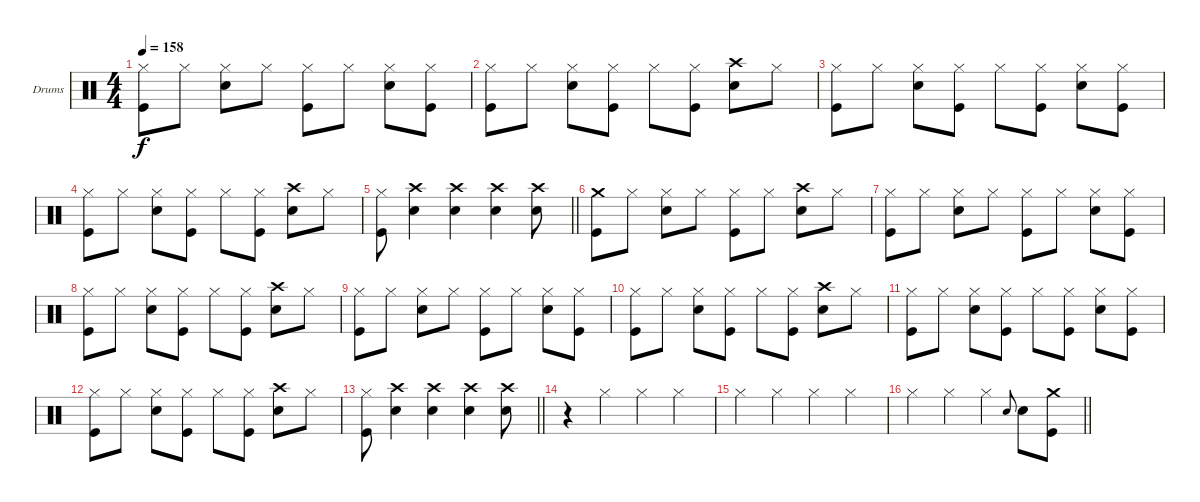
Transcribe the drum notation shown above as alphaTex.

\bracketExtendMode groupsimilarinstruments
\firstSystemTrackNameOrientation horizontal
\otherSystemsTrackNameOrientation horizontal
\track ("Drumkit" "Drums") {instrument percussion}
\staff {score}
\articulation defaults
\ts (4 4)
\tempo 158
\clef neutral
\ks c
("Hi-Hat (closed)" "Kick (hit)").8{dy f} "Hi-Hat (closed)".8 ("Hi-Hat (closed)" "Snare (hit) 2").8 "Hi-Hat (closed)".8 ("Hi-Hat (closed)" "Kick (hit)").8 "Hi-Hat (closed)".8 ("Hi-Hat (closed)" "Snare (hit) 2").8 ("Hi-Hat (closed)" "Kick (hit)").8 |
("Hi-Hat (closed)" "Kick (hit)").8 "Hi-Hat (closed)".8 ("Hi-Hat (closed)" "Snare (hit) 2").8 ("Hi-Hat (closed)" "Kick (hit)").8 "Hi-Hat (closed)".8 ("Hi-Hat (closed)" "Kick (hit)").8 ("Crash high (hit)" "Snare (hit) 2").8 "Hi-Hat (closed)".8 |
("Hi-Hat (closed)" "Kick (hit)").8 "Hi-Hat (closed)".8 ("Hi-Hat (closed)" "Snare (hit) 2").8 ("Hi-Hat (closed)" "Kick (hit)").8 "Hi-Hat (closed)".8 ("Hi-Hat (closed)" "Kick (hit)").8 ("Hi-Hat (closed)" "Snare (hit) 2").8 ("Hi-Hat (closed)" "Kick (hit)").8 |
("Hi-Hat (closed)" "Kick (hit)").8 "Hi-Hat (closed)".8 ("Hi-Hat (closed)" "Snare (hit) 2").8 ("Hi-Hat (closed)" "Kick (hit)").8 "Hi-Hat (closed)".8 ("Hi-Hat (closed)" "Kick (hit)").8 ("Crash high (hit)" "Snare (hit) 2").8 "Hi-Hat (closed)".8 |
\barLineRight lightlight
("Hi-Hat (closed)" "Kick (hit)").8 ("Crash high (hit)" "Snare (hit) 2").4 ("Crash high (hit)" "Snare (hit) 2").4 ("Crash high (hit)" "Snare (hit) 2").4 ("Crash high (hit)" "Snare (hit) 2").8 |
\section ("" "")
("Crash medium (hit)" "Kick (hit)").8 "Hi-Hat (closed)".8 ("Hi-Hat (closed)" "Snare (hit) 2").8 "Hi-Hat (closed)".8 ("Hi-Hat (closed)" "Kick (hit)").8 "Hi-Hat (closed)".8 ("Crash high (hit)" "Snare (hit) 2").8 "Hi-Hat (closed)".8 |
("Hi-Hat (closed)" "Kick (hit)").8 "Hi-Hat (closed)".8 ("Hi-Hat (closed)" "Snare (hit) 2").8 "Hi-Hat (closed)".8 ("Hi-Hat (closed)" "Kick (hit)").8 "Hi-Hat (closed)".8 ("Hi-Hat (closed)" "Snare (hit) 2").8 ("Hi-Hat (closed)" "Kick (hit)").8 |
("Hi-Hat (closed)" "Kick (hit)").8 "Hi-Hat (closed)".8 ("Hi-Hat (closed)" "Snare (hit) 2").8 ("Hi-Hat (closed)" "Kick (hit)").8 "Hi-Hat (closed)".8 ("Hi-Hat (closed)" "Kick (hit)").8 ("Crash high (hit)" "Snare (hit) 2").8 "Hi-Hat (closed)".8 |
("Hi-Hat (closed)" "Kick (hit)").8 "Hi-Hat (closed)".8 ("Hi-Hat (closed)" "Snare (hit) 2").8 "Hi-Hat (closed)".8 ("Hi-Hat (closed)" "Kick (hit)").8 "Hi-Hat (closed)".8 ("Hi-Hat (closed)" "Snare (hit) 2").8 ("Hi-Hat (closed)" "Kick (hit)").8 |
("Hi-Hat (closed)" "Kick (hit)").8 "Hi-Hat (closed)".8 ("Hi-Hat (closed)" "Snare (hit) 2").8 ("Hi-Hat (closed)" "Kick (hit)").8 "Hi-Hat (closed)".8 ("Hi-Hat (closed)" "Kick (hit)").8 ("Crash high (hit)" "Snare (hit) 2").8 "Hi-Hat (closed)".8 |
("Hi-Hat (closed)" "Kick (hit)").8 "Hi-Hat (closed)".8 ("Hi-Hat (closed)" "Snare (hit) 2").8 ("Hi-Hat (closed)" "Kick (hit)").8 "Hi-Hat (closed)".8 ("Hi-Hat (closed)" "Kick (hit)").8 ("Hi-Hat (closed)" "Snare (hit) 2").8 ("Hi-Hat (closed)" "Kick (hit)").8 |
("Hi-Hat (closed)" "Kick (hit)").8 "Hi-Hat (closed)".8 ("Hi-Hat (closed)" "Snare (hit) 2").8 ("Hi-Hat (closed)" "Kick (hit)").8 "Hi-Hat (closed)".8 ("Hi-Hat (closed)" "Kick (hit)").8 ("Crash high (hit)" "Snare (hit) 2").8 "Hi-Hat (closed)".8 |
\barLineRight lightlight
("Hi-Hat (closed)" "Kick (hit)").8 ("Crash high (hit)" "Snare (hit) 2").4 ("Crash high (hit)" "Snare (hit) 2").4 ("Crash high (hit)" "Snare (hit) 2").4 ("Crash high (hit)" "Snare (hit) 2").8 |
\section ("" "")
r.4 "Hi-Hat (closed)".4 "Hi-Hat (closed)".4 "Hi-Hat (closed)".4 |
"Hi-Hat (closed)".4 "Hi-Hat (closed)".4 "Hi-Hat (closed)".4 "Hi-Hat (closed)".4 |
\barLineRight lightlight "Hi-Hat (closed)".4 "Hi-Hat (closed)".4 "Hi-Hat (closed)".4 "Snare (hit) 2".8{gr onbeat} "Snare (hit) 2".8
("Crash medium (hit)" "Kick (hit)").8
